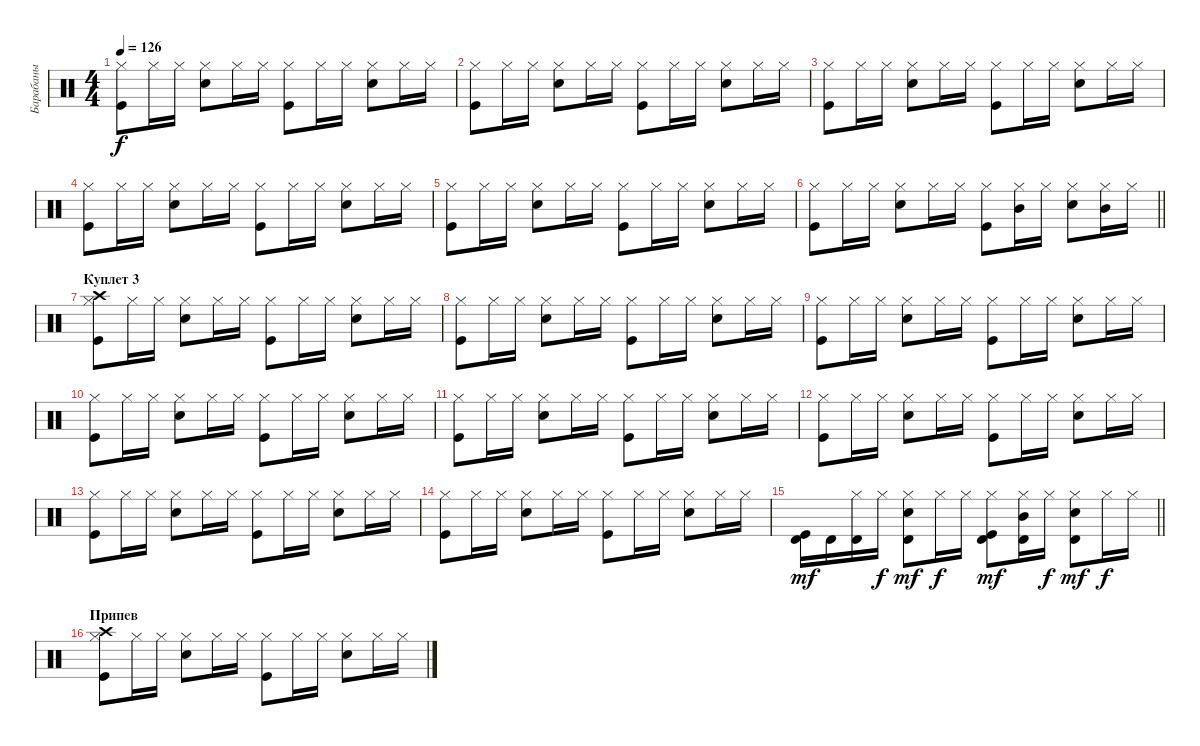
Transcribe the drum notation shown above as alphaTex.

\track ("Барабаны" "Барабаны") {instrument percussion}
\staff {score}
\articulation defaults
\ts (4 4)
\tempo 126
\clef neutral
\ks c
("Kick (hit)" "Hi-Hat (closed)").8{dy f} "Hi-Hat (closed)".16 "Hi-Hat (closed)".16 ("Snare (hit) 2" "Hi-Hat (closed)").8 "Hi-Hat (closed)".16 "Hi-Hat (closed)".16 ("Kick (hit)" "Hi-Hat (closed)").8 "Hi-Hat (closed)".16 "Hi-Hat (closed)".16 ("Snare (hit) 2" "Hi-Hat (closed)").8 "Hi-Hat (closed)".16 "Hi-Hat (closed)".16 |
("Kick (hit)" "Hi-Hat (closed)").8 "Hi-Hat (closed)".16 "Hi-Hat (closed)".16 ("Snare (hit) 2" "Hi-Hat (closed)").8 "Hi-Hat (closed)".16 "Hi-Hat (closed)".16 ("Kick (hit)" "Hi-Hat (closed)").8 "Hi-Hat (closed)".16 "Hi-Hat (closed)".16 ("Snare (hit) 2" "Hi-Hat (closed)").8 "Hi-Hat (closed)".16 "Hi-Hat (closed)".16 |
("Kick (hit)" "Hi-Hat (closed)").8 "Hi-Hat (closed)".16 "Hi-Hat (closed)".16 ("Snare (hit) 2" "Hi-Hat (closed)").8 "Hi-Hat (closed)".16 "Hi-Hat (closed)".16 ("Kick (hit)" "Hi-Hat (closed)").8 "Hi-Hat (closed)".16 "Hi-Hat (closed)".16 ("Snare (hit) 2" "Hi-Hat (closed)").8 "Hi-Hat (closed)".16 "Hi-Hat (closed)".16 |
("Kick (hit)" "Hi-Hat (closed)").8 "Hi-Hat (closed)".16 "Hi-Hat (closed)".16 ("Snare (hit) 2" "Hi-Hat (closed)").8 "Hi-Hat (closed)".16 "Hi-Hat (closed)".16 ("Kick (hit)" "Hi-Hat (closed)").8 "Hi-Hat (closed)".16 "Hi-Hat (closed)".16 ("Snare (hit) 2" "Hi-Hat (closed)").8 "Hi-Hat (closed)".16 "Hi-Hat (closed)".16 |
("Kick (hit)" "Hi-Hat (closed)").8 "Hi-Hat (closed)".16 "Hi-Hat (closed)".16 ("Snare (hit) 2" "Hi-Hat (closed)").8 "Hi-Hat (closed)".16 "Hi-Hat (closed)".16 ("Kick (hit)" "Hi-Hat (closed)").8 "Hi-Hat (closed)".16 "Hi-Hat (closed)".16 ("Snare (hit) 2" "Hi-Hat (closed)").8 "Hi-Hat (closed)".16 "Hi-Hat (closed)".16 |
\barLineRight lightlight
("Kick (hit)" "Hi-Hat (closed)").8 "Hi-Hat (closed)".16 "Hi-Hat (closed)".16 ("Snare (hit) 2" "Hi-Hat (closed)").8 "Hi-Hat (closed)".16 "Hi-Hat (closed)".16 ("Kick (hit)" "Hi-Hat (closed)").8 ("Hi-Hat (closed)" "Mid Tom (hit)").16 "Hi-Hat (closed)".16 ("Snare (hit) 2" "Hi-Hat (closed)").8 ("Hi-Hat (closed)" "Mid Tom (hit)").16 "Hi-Hat (closed)".16 |
\section ("" "Куплет 3")
("Kick (hit)" "Hi-Hat (closed)" "Crash high (hit)").8 "Hi-Hat (closed)".16 "Hi-Hat (closed)".16 ("Snare (hit) 2" "Hi-Hat (closed)").8 "Hi-Hat (closed)".16 "Hi-Hat (closed)".16 ("Kick (hit)" "Hi-Hat (closed)").8 "Hi-Hat (closed)".16 "Hi-Hat (closed)".16 ("Snare (hit) 2" "Hi-Hat (closed)").8 "Hi-Hat (closed)".16 "Hi-Hat (closed)".16 |
("Kick (hit)" "Hi-Hat (closed)").8 "Hi-Hat (closed)".16 "Hi-Hat (closed)".16 ("Snare (hit) 2" "Hi-Hat (closed)").8 "Hi-Hat (closed)".16 "Hi-Hat (closed)".16 ("Kick (hit)" "Hi-Hat (closed)").8 "Hi-Hat (closed)".16 "Hi-Hat (closed)".16 ("Snare (hit) 2" "Hi-Hat (closed)").8 "Hi-Hat (closed)".16 "Hi-Hat (closed)".16 |
("Kick (hit)" "Hi-Hat (closed)").8 "Hi-Hat (closed)".16 "Hi-Hat (closed)".16 ("Snare (hit) 2" "Hi-Hat (closed)").8 "Hi-Hat (closed)".16 "Hi-Hat (closed)".16 ("Kick (hit)" "Hi-Hat (closed)").8 "Hi-Hat (closed)".16 "Hi-Hat (closed)".16 ("Snare (hit) 2" "Hi-Hat (closed)").8 "Hi-Hat (closed)".16 "Hi-Hat (closed)".16 |
("Kick (hit)" "Hi-Hat (closed)").8 "Hi-Hat (closed)".16 "Hi-Hat (closed)".16 ("Snare (hit) 2" "Hi-Hat (closed)").8 "Hi-Hat (closed)".16 "Hi-Hat (closed)".16 ("Kick (hit)" "Hi-Hat (closed)").8 "Hi-Hat (closed)".16 "Hi-Hat (closed)".16 ("Snare (hit) 2" "Hi-Hat (closed)").8 "Hi-Hat (closed)".16 "Hi-Hat (closed)".16 |
("Kick (hit)" "Hi-Hat (closed)").8 "Hi-Hat (closed)".16 "Hi-Hat (closed)".16 ("Snare (hit) 2" "Hi-Hat (closed)").8 "Hi-Hat (closed)".16 "Hi-Hat (closed)".16 ("Kick (hit)" "Hi-Hat (closed)").8 "Hi-Hat (closed)".16 "Hi-Hat (closed)".16 ("Snare (hit) 2" "Hi-Hat (closed)").8 "Hi-Hat (closed)".16 "Hi-Hat (closed)".16 |
("Kick (hit)" "Hi-Hat (closed)").8 "Hi-Hat (closed)".16 "Hi-Hat (closed)".16 ("Snare (hit) 2" "Hi-Hat (closed)").8 "Hi-Hat (closed)".16 "Hi-Hat (closed)".16 ("Kick (hit)" "Hi-Hat (closed)").8 "Hi-Hat (closed)".16 "Hi-Hat (closed)".16 ("Snare (hit) 2" "Hi-Hat (closed)").8 "Hi-Hat (closed)".16 "Hi-Hat (closed)".16 |
("Kick (hit)" "Hi-Hat (closed)").8 "Hi-Hat (closed)".16 "Hi-Hat (closed)".16 ("Snare (hit) 2" "Hi-Hat (closed)").8 "Hi-Hat (closed)".16 "Hi-Hat (closed)".16 ("Kick (hit)" "Hi-Hat (closed)").8 "Hi-Hat (closed)".16 "Hi-Hat (closed)".16 ("Snare (hit) 2" "Hi-Hat (closed)").8 "Hi-Hat (closed)".16 "Hi-Hat (closed)".16 |
("Kick (hit)" "Hi-Hat (closed)").8 "Hi-Hat (closed)".16 "Hi-Hat (closed)".16 ("Snare (hit) 2" "Hi-Hat (closed)").8 "Hi-Hat (closed)".16 "Hi-Hat (closed)".16 ("Kick (hit)" "Hi-Hat (closed)").8 "Hi-Hat (closed)".16 "Hi-Hat (closed)".16 ("Snare (hit) 2" "Hi-Hat (closed)").8 "Hi-Hat (closed)".16 "Hi-Hat (closed)".16 |
\barLineRight lightlight
("Kick (hit)" "Timbale high (hit)").16{dy mf} "Timbale high (hit)".16 ("Hi-Hat (closed)" "Timbale high (hit)").16 "Hi-Hat (closed)".16{dy f} ("Snare (hit) 2" "Hi-Hat (closed)" "Timbale high (hit)").8{dy mf} "Hi-Hat (closed)".16{dy f} "Hi-Hat (closed)".16 ("Kick (hit)" "Hi-Hat (closed)" "Timbale high (hit)").8{dy mf} ("Hi-Hat (closed)" "Mid Tom (hit)" "Timbale high (hit)").16 "Hi-Hat (closed)".16{dy f} ("Snare (hit) 2" "Hi-Hat (closed)" "Timbale high (hit)").8{dy mf} "Hi-Hat (closed)".16{dy f} "Hi-Hat (closed)".16 |
\section ("" "Припев")
("Kick (hit)" "Hi-Hat (closed)" "Crash high (hit)").8 "Hi-Hat (closed)".16 "Hi-Hat (closed)".16 ("Snare (hit) 2" "Hi-Hat (closed)").8 "Hi-Hat (closed)".16 "Hi-Hat (closed)".16 ("Kick (hit)" "Hi-Hat (closed)").8 "Hi-Hat (closed)".16 "Hi-Hat (closed)".16 ("Snare (hit) 2" "Hi-Hat (closed)").8 "Hi-Hat (closed)".16 "Hi-Hat (closed)".16
